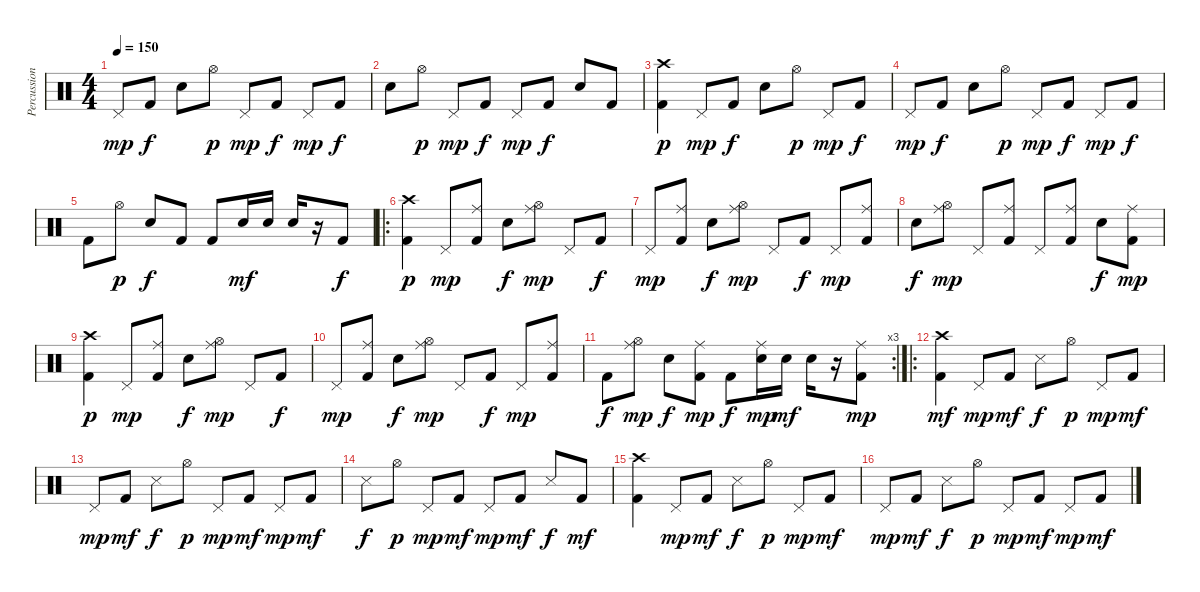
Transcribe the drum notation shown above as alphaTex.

\track ("Percussion" "Percussion") {instrument percussion}
\staff {score}
\articulation defaults
\ts (4 4)
\tempo 150
\clef neutral
\ks c "Pedal Hi-Hat (hit)".8{dy mp} "Kick (hit) 2".8{dy f} "Electric Snare (hit)".8 "Hi-Hat (open)".8{dy p} "Pedal Hi-Hat (hit)".8{dy mp} "Kick (hit) 2".8{dy f} "Pedal Hi-Hat (hit)".8{dy mp} "Kick (hit) 2".8{dy f}
|
"Electric Snare (hit)".8 "Hi-Hat (open)".8{dy p} "Pedal Hi-Hat (hit)".8{dy mp} "Kick (hit) 2".8{dy f} "Pedal Hi-Hat (hit)".8{dy mp} "Kick (hit) 2".8{dy f} "Electric Snare (hit)".8 "Kick (hit) 2".8 |
("Crash high (hit)" "Kick (hit) 2").4{dy p} "Pedal Hi-Hat (hit)".8{dy mp} "Kick (hit) 2".8{dy f} "Electric Snare (hit)".8 "Hi-Hat (open)".8{dy p} "Pedal Hi-Hat (hit)".8{dy mp} "Kick (hit) 2".8{dy f} |
"Pedal Hi-Hat (hit)".8{dy mp} "Kick (hit) 2".8{dy f} "Electric Snare (hit)".8 "Hi-Hat (open)".8{dy p} "Pedal Hi-Hat (hit)".8{dy mp} "Kick (hit) 2".8{dy f} "Pedal Hi-Hat (hit)".8{dy mp} "Kick (hit) 2".8{dy f} |
"Kick (hit) 2".8 "Hi-Hat (open)".8{dy p} "Electric Snare (hit)".8{dy f} "Kick (hit) 2".8 "Kick (hit) 2".8 "Electric Snare (hit)".16{dy mf} "Electric Snare (hit)".16 "Electric Snare (hit)".16 r.16 "Kick (hit) 2".8{dy f} |
\ro
("Crash high (hit)" "Kick (hit) 2").4{dy p} "Pedal Hi-Hat (hit)".8{dy mp} ("Kick (hit) 2" "Ride (middle)").8 "Electric Snare (hit)".8{dy f} ("Hi-Hat (open)" "Ride (middle)").8{dy mp} "Pedal Hi-Hat (hit)".8 "Kick (hit) 2".8{dy f} |
"Pedal Hi-Hat (hit)".8{dy mp} ("Kick (hit) 2" "Ride (middle)").8 "Electric Snare (hit)".8{dy f} ("Hi-Hat (open)" "Ride (middle)").8{dy mp} "Pedal Hi-Hat (hit)".8 "Kick (hit) 2".8{dy f} "Pedal Hi-Hat (hit)".8{dy mp} ("Kick (hit) 2" "Ride (middle)").8 |
"Electric Snare (hit)".8{dy f} ("Hi-Hat (open)" "Ride (middle)").8{dy mp} "Pedal Hi-Hat (hit)".8 ("Kick (hit) 2" "Ride (middle)").8 "Pedal Hi-Hat (hit)".8 ("Kick (hit) 2" "Ride (middle)").8 "Electric Snare (hit)".8{dy f} ("Kick (hit) 2" "Ride (middle)").8{dy mp} |
("Crash high (hit)" "Kick (hit) 2").4{dy p} "Pedal Hi-Hat (hit)".8{dy mp} ("Kick (hit) 2" "Ride (middle)").8 "Electric Snare (hit)".8{dy f} ("Hi-Hat (open)" "Ride (middle)").8{dy mp} "Pedal Hi-Hat (hit)".8 "Kick (hit) 2".8{dy f} |
"Pedal Hi-Hat (hit)".8{dy mp} ("Kick (hit) 2" "Ride (middle)").8 "Electric Snare (hit)".8{dy f} ("Hi-Hat (open)" "Ride (middle)").8{dy mp} "Pedal Hi-Hat (hit)".8 "Kick (hit) 2".8{dy f} "Pedal Hi-Hat (hit)".8{dy mp} ("Kick (hit) 2" "Ride (middle)").8 |
\rc 3 "Kick (hit) 2".8{dy f}
("Hi-Hat (open)" "Ride (middle)").8{dy mp} "Electric Snare (hit)".8{dy f} ("Kick (hit) 2" "Ride (middle)").8{dy mp} "Kick (hit) 2".8{dy f} ("Electric Snare (hit)" "Ride (middle)").16{dy mp} "Electric Snare (hit)".16{dy mf} "Electric Snare (hit)".16 r.16 ("Kick (hit) 2" "Ride (middle)").8{dy mp} |
\ro
("Crash high (hit)" "Kick (hit) 2").4{dy mf} "Pedal Hi-Hat (hit)".8{dy mp} "Kick (hit) 2".8{dy mf} "Snare (side stick) 3".8{dy f} "Hi-Hat (open)".8{dy p} "Pedal Hi-Hat (hit)".8{dy mp} "Kick (hit) 2".8{dy mf} |
"Pedal Hi-Hat (hit)".8{dy mp} "Kick (hit) 2".8{dy mf} "Snare (side stick) 3".8{dy f} "Hi-Hat (open)".8{dy p} "Pedal Hi-Hat (hit)".8{dy mp} "Kick (hit) 2".8{dy mf} "Pedal Hi-Hat (hit)".8{dy mp} "Kick (hit) 2".8{dy mf} |
"Snare (side stick) 3".8{dy f} "Hi-Hat (open)".8{dy p} "Pedal Hi-Hat (hit)".8{dy mp} "Kick (hit) 2".8{dy mf} "Pedal Hi-Hat (hit)".8{dy mp} "Kick (hit) 2".8{dy mf} "Snare (side stick) 3".8{dy f} "Kick (hit) 2".8{dy mf} |
("Crash high (hit)" "Kick (hit) 2").4 "Pedal Hi-Hat (hit)".8{dy mp} "Kick (hit) 2".8{dy mf} "Snare (side stick) 3".8{dy f} "Hi-Hat (open)".8{dy p} "Pedal Hi-Hat (hit)".8{dy mp} "Kick (hit) 2".8{dy mf} |
"Pedal Hi-Hat (hit)".8{dy mp} "Kick (hit) 2".8{dy mf} "Snare (side stick) 3".8{dy f} "Hi-Hat (open)".8{dy p} "Pedal Hi-Hat (hit)".8{dy mp} "Kick (hit) 2".8{dy mf} "Pedal Hi-Hat (hit)".8{dy mp} "Kick (hit) 2".8{dy mf}
